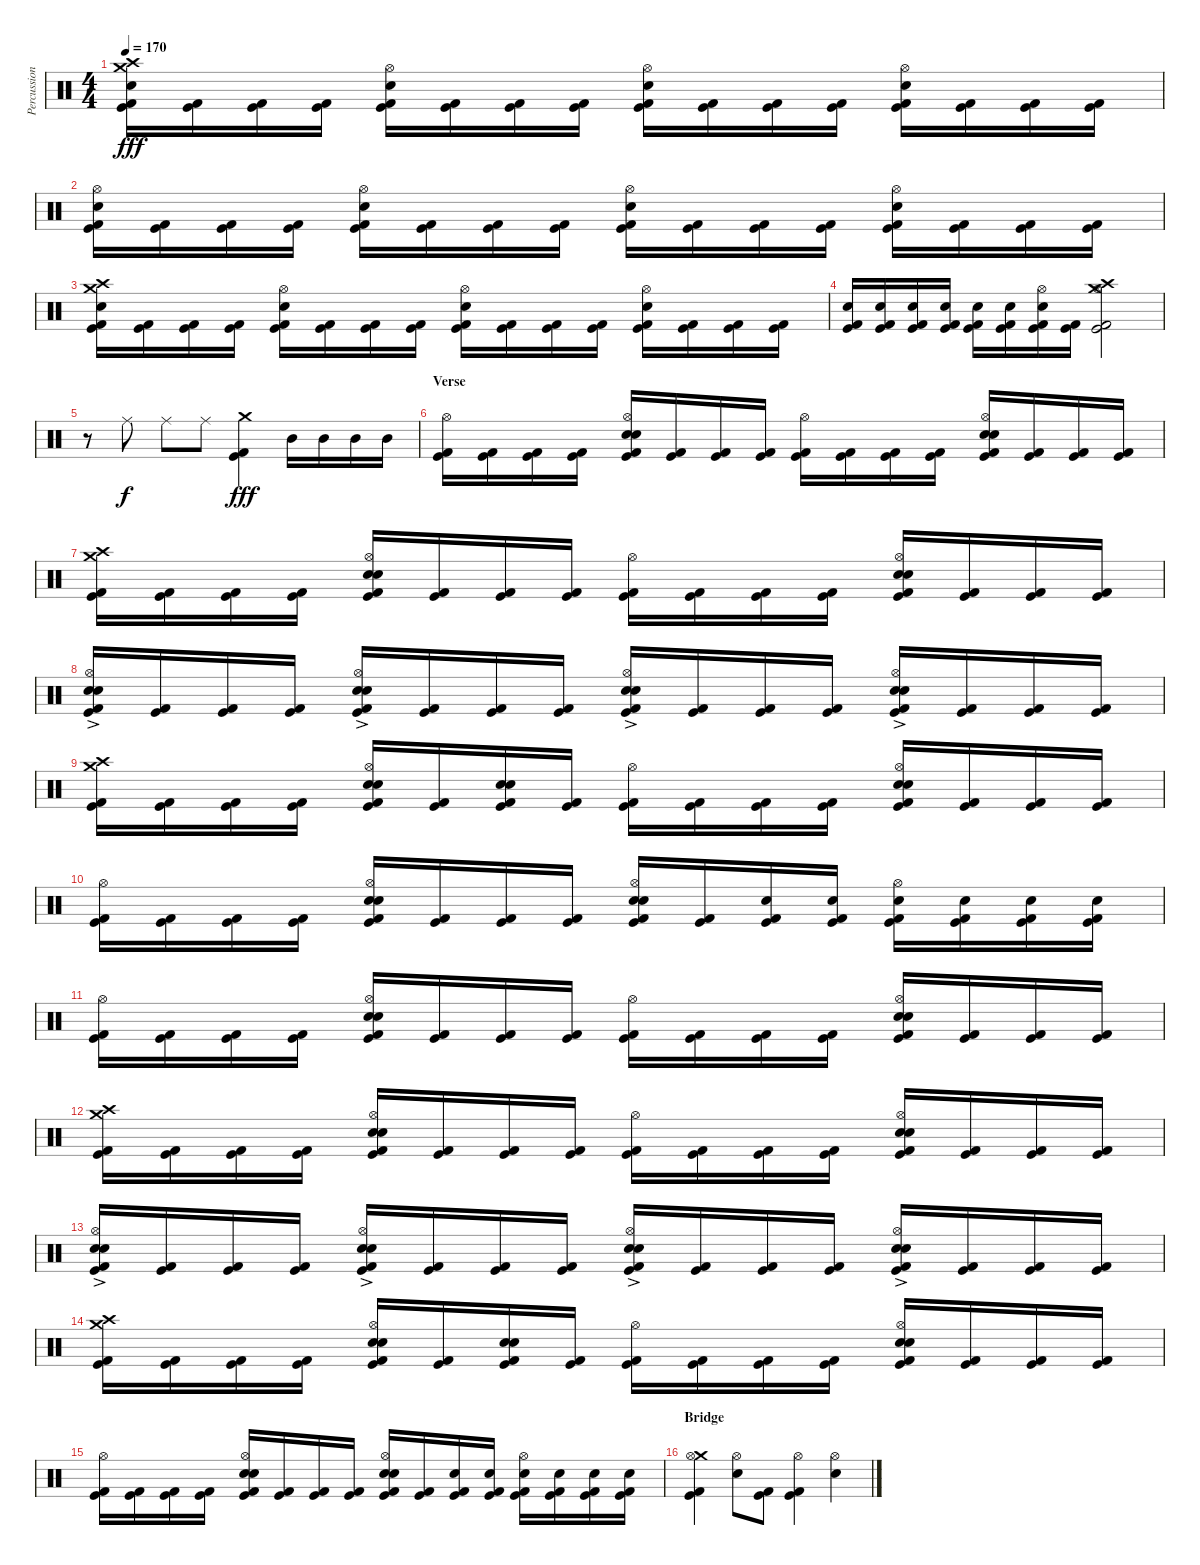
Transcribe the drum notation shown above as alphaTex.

\track ("Percussions" "Percussion") {instrument percussion}
\staff {score}
\articulation defaults
\ts (4 4)
\tempo 170
\clef neutral
\ks c
("Crash high (hit)" "Crash medium (hit)" "Electric Snare (hit)" "Kick (hit)" "Kick (hit) 2").16{dy fff} ("Kick (hit)" "Kick (hit) 2").16 ("Kick (hit)" "Kick (hit) 2").16 ("Kick (hit)" "Kick (hit) 2").16 ("Hi-Hat (open)" "Electric Snare (hit)" "Kick (hit)" "Kick (hit) 2").16 ("Kick (hit)" "Kick (hit) 2").16 ("Kick (hit)" "Kick (hit) 2").16 ("Kick (hit)" "Kick (hit) 2").16 ("Hi-Hat (open)" "Electric Snare (hit)" "Kick (hit)" "Kick (hit) 2").16 ("Kick (hit)" "Kick (hit) 2").16 ("Kick (hit)" "Kick (hit) 2").16 ("Kick (hit)" "Kick (hit) 2").16 ("Hi-Hat (open)" "Electric Snare (hit)" "Kick (hit)" "Kick (hit) 2").16 ("Kick (hit)" "Kick (hit) 2").16 ("Kick (hit)" "Kick (hit) 2").16 ("Kick (hit)" "Kick (hit) 2").16 |
("Hi-Hat (open)" "Electric Snare (hit)" "Kick (hit)" "Kick (hit) 2").16 ("Kick (hit)" "Kick (hit) 2").16 ("Kick (hit)" "Kick (hit) 2").16 ("Kick (hit)" "Kick (hit) 2").16 ("Hi-Hat (open)" "Electric Snare (hit)" "Kick (hit)" "Kick (hit) 2").16 ("Kick (hit)" "Kick (hit) 2").16 ("Kick (hit)" "Kick (hit) 2").16 ("Kick (hit)" "Kick (hit) 2").16 ("Hi-Hat (open)" "Electric Snare (hit)" "Kick (hit)" "Kick (hit) 2").16 ("Kick (hit)" "Kick (hit) 2").16 ("Kick (hit)" "Kick (hit) 2").16 ("Kick (hit)" "Kick (hit) 2").16 ("Hi-Hat (open)" "Electric Snare (hit)" "Kick (hit)" "Kick (hit) 2").16 ("Kick (hit)" "Kick (hit) 2").16 ("Kick (hit)" "Kick (hit) 2").16 ("Kick (hit)" "Kick (hit) 2").16 |
("Crash high (hit)" "Crash medium (hit)" "Electric Snare (hit)" "Kick (hit)" "Kick (hit) 2").16 ("Kick (hit)" "Kick (hit) 2").16 ("Kick (hit)" "Kick (hit) 2").16 ("Kick (hit)" "Kick (hit) 2").16 ("Hi-Hat (open)" "Electric Snare (hit)" "Kick (hit)" "Kick (hit) 2").16 ("Kick (hit)" "Kick (hit) 2").16 ("Kick (hit)" "Kick (hit) 2").16 ("Kick (hit)" "Kick (hit) 2").16 ("Hi-Hat (open)" "Electric Snare (hit)" "Kick (hit)" "Kick (hit) 2").16 ("Kick (hit)" "Kick (hit) 2").16 ("Kick (hit)" "Kick (hit) 2").16 ("Kick (hit)" "Kick (hit) 2").16 ("Hi-Hat (open)" "Electric Snare (hit)" "Kick (hit)" "Kick (hit) 2").16 ("Kick (hit)" "Kick (hit) 2").16 ("Kick (hit)" "Kick (hit) 2").16 ("Kick (hit)" "Kick (hit) 2").16 |
("Electric Snare (hit)" "Kick (hit)" "Kick (hit) 2").16 ("Electric Snare (hit)" "Kick (hit)" "Kick (hit) 2").16 ("Electric Snare (hit)" "Kick (hit)" "Kick (hit) 2").16 ("Electric Snare (hit)" "Kick (hit)" "Kick (hit) 2").16 ("Electric Snare (hit)" "Kick (hit)" "Kick (hit) 2").16 ("Electric Snare (hit)" "Kick (hit)" "Kick (hit) 2").16 ("Hi-Hat (open)" "Electric Snare (hit)" "Kick (hit)" "Kick (hit) 2").16 ("Kick (hit)" "Kick (hit) 2").16 ("Crash high (hit)" "Crash medium (hit)" "Hi-Hat (open)" "Kick (hit)" "Kick (hit) 2").2 |
r.8 "Ride (middle)".8{dy f} "Ride (middle)".8 "Ride (middle)".8 ("Crash medium (hit)" "Kick (hit)" "Kick (hit) 2").4{dy fff} "Mid Tom (hit)".16 "Mid Tom (hit)".16 "Mid Tom (hit)".16 "Mid Tom (hit)".16 |
\section ("" "Verse")
("Hi-Hat (open)" "Kick (hit)" "Kick (hit) 2").16 ("Kick (hit)" "Kick (hit) 2").16 ("Kick (hit)" "Kick (hit) 2").16 ("Kick (hit)" "Kick (hit) 2").16 ("Hi-Hat (open)" "Snare (hit) 2" "Electric Snare (hit)" "Kick (hit)" "Kick (hit) 2").16 ("Kick (hit)" "Kick (hit) 2").16 ("Kick (hit)" "Kick (hit) 2").16 ("Kick (hit)" "Kick (hit) 2").16 ("Hi-Hat (open)" "Kick (hit)" "Kick (hit) 2").16 ("Kick (hit)" "Kick (hit) 2").16 ("Kick (hit)" "Kick (hit) 2").16 ("Kick (hit)" "Kick (hit) 2").16 ("Hi-Hat (open)" "Snare (hit) 2" "Electric Snare (hit)" "Kick (hit)" "Kick (hit) 2").16 ("Kick (hit)" "Kick (hit) 2").16 ("Kick (hit)" "Kick (hit) 2").16 ("Kick (hit)" "Kick (hit) 2").16 |
("Crash high (hit)" "Crash medium (hit)" "Kick (hit)" "Kick (hit) 2").16 ("Kick (hit)" "Kick (hit) 2").16 ("Kick (hit)" "Kick (hit) 2").16 ("Kick (hit)" "Kick (hit) 2").16 ("Hi-Hat (open)" "Snare (hit) 2" "Electric Snare (hit)" "Kick (hit)" "Kick (hit) 2").16 ("Kick (hit)" "Kick (hit) 2").16 ("Kick (hit)" "Kick (hit) 2").16 ("Kick (hit)" "Kick (hit) 2").16 ("Hi-Hat (open)" "Kick (hit)" "Kick (hit) 2").16 ("Kick (hit)" "Kick (hit) 2").16 ("Kick (hit)" "Kick (hit) 2").16 ("Kick (hit)" "Kick (hit) 2").16 ("Hi-Hat (open)" "Snare (hit) 2" "Electric Snare (hit)" "Kick (hit)" "Kick (hit) 2").16 ("Kick (hit)" "Kick (hit) 2").16 ("Kick (hit)" "Kick (hit) 2").16 ("Kick (hit)" "Kick (hit) 2").16 |
("Hi-Hat (open)" "Snare (hit) 2"{ac} "Electric Snare (hit)"{ac} "Kick (hit)" "Kick (hit) 2").16 ("Kick (hit)" "Kick (hit) 2").16 ("Kick (hit)" "Kick (hit) 2").16 ("Kick (hit)" "Kick (hit) 2").16 ("Hi-Hat (open)" "Snare (hit) 2"{ac} "Electric Snare (hit)"{ac} "Kick (hit)" "Kick (hit) 2").16 ("Kick (hit)" "Kick (hit) 2").16 ("Kick (hit)" "Kick (hit) 2").16 ("Kick (hit)" "Kick (hit) 2").16 ("Hi-Hat (open)" "Snare (hit) 2"{ac} "Electric Snare (hit)"{ac} "Kick (hit)" "Kick (hit) 2").16 ("Kick (hit)" "Kick (hit) 2").16 ("Kick (hit)" "Kick (hit) 2").16 ("Kick (hit)" "Kick (hit) 2").16 ("Hi-Hat (open)" "Snare (hit) 2"{ac} "Electric Snare (hit)"{ac} "Kick (hit)" "Kick (hit) 2").16 ("Kick (hit)" "Kick (hit) 2").16 ("Kick (hit)" "Kick (hit) 2").16 ("Kick (hit)" "Kick (hit) 2").16 |
("Crash high (hit)" "Crash medium (hit)" "Kick (hit)" "Kick (hit) 2").16 ("Kick (hit)" "Kick (hit) 2").16 ("Kick (hit)" "Kick (hit) 2").16 ("Kick (hit)" "Kick (hit) 2").16 ("Hi-Hat (open)" "Snare (hit) 2" "Electric Snare (hit)" "Kick (hit)" "Kick (hit) 2").16 ("Kick (hit)" "Kick (hit) 2").16 ("Snare (hit) 2" "Electric Snare (hit)" "Kick (hit)" "Kick (hit) 2").16 ("Kick (hit)" "Kick (hit) 2").16 ("Hi-Hat (open)" "Kick (hit)" "Kick (hit) 2").16 ("Kick (hit)" "Kick (hit) 2").16 ("Kick (hit)" "Kick (hit) 2").16 ("Kick (hit)" "Kick (hit) 2").16 ("Hi-Hat (open)" "Snare (hit) 2" "Electric Snare (hit)" "Kick (hit)" "Kick (hit) 2").16 ("Kick (hit)" "Kick (hit) 2").16 ("Kick (hit)" "Kick (hit) 2").16 ("Kick (hit)" "Kick (hit) 2").16 |
("Hi-Hat (open)" "Kick (hit)" "Kick (hit) 2").16 ("Kick (hit)" "Kick (hit) 2").16 ("Kick (hit)" "Kick (hit) 2").16 ("Kick (hit)" "Kick (hit) 2").16 ("Hi-Hat (open)" "Snare (hit) 2" "Electric Snare (hit)" "Kick (hit)" "Kick (hit) 2").16 ("Kick (hit)" "Kick (hit) 2").16 ("Kick (hit)" "Kick (hit) 2").16 ("Kick (hit)" "Kick (hit) 2").16 ("Hi-Hat (open)" "Snare (hit) 2" "Electric Snare (hit)" "Kick (hit)" "Kick (hit) 2").16 ("Kick (hit)" "Kick (hit) 2").16 ("Electric Snare (hit)" "Kick (hit)" "Kick (hit) 2").16 ("Electric Snare (hit)" "Kick (hit)" "Kick (hit) 2").16 ("Hi-Hat (open)" "Electric Snare (hit)" "Kick (hit)" "Kick (hit) 2").16 ("Electric Snare (hit)" "Kick (hit)" "Kick (hit) 2").16 ("Electric Snare (hit)" "Kick (hit)" "Kick (hit) 2").16 ("Electric Snare (hit)" "Kick (hit)" "Kick (hit) 2").16 |
("Hi-Hat (open)" "Kick (hit)" "Kick (hit) 2").16 ("Kick (hit)" "Kick (hit) 2").16 ("Kick (hit)" "Kick (hit) 2").16 ("Kick (hit)" "Kick (hit) 2").16 ("Hi-Hat (open)" "Snare (hit) 2" "Electric Snare (hit)" "Kick (hit)" "Kick (hit) 2").16 ("Kick (hit)" "Kick (hit) 2").16 ("Kick (hit)" "Kick (hit) 2").16 ("Kick (hit)" "Kick (hit) 2").16 ("Hi-Hat (open)" "Kick (hit)" "Kick (hit) 2").16 ("Kick (hit)" "Kick (hit) 2").16 ("Kick (hit)" "Kick (hit) 2").16 ("Kick (hit)" "Kick (hit) 2").16 ("Hi-Hat (open)" "Snare (hit) 2" "Electric Snare (hit)" "Kick (hit)" "Kick (hit) 2").16 ("Kick (hit)" "Kick (hit) 2").16 ("Kick (hit)" "Kick (hit) 2").16 ("Kick (hit)" "Kick (hit) 2").16 |
("Crash high (hit)" "Crash medium (hit)" "Kick (hit)" "Kick (hit) 2").16 ("Kick (hit)" "Kick (hit) 2").16 ("Kick (hit)" "Kick (hit) 2").16 ("Kick (hit)" "Kick (hit) 2").16 ("Hi-Hat (open)" "Snare (hit) 2" "Electric Snare (hit)" "Kick (hit)" "Kick (hit) 2").16 ("Kick (hit)" "Kick (hit) 2").16 ("Kick (hit)" "Kick (hit) 2").16 ("Kick (hit)" "Kick (hit) 2").16 ("Hi-Hat (open)" "Kick (hit)" "Kick (hit) 2").16 ("Kick (hit)" "Kick (hit) 2").16 ("Kick (hit)" "Kick (hit) 2").16 ("Kick (hit)" "Kick (hit) 2").16 ("Hi-Hat (open)" "Snare (hit) 2" "Electric Snare (hit)" "Kick (hit)" "Kick (hit) 2").16 ("Kick (hit)" "Kick (hit) 2").16 ("Kick (hit)" "Kick (hit) 2").16 ("Kick (hit)" "Kick (hit) 2").16 |
("Hi-Hat (open)" "Snare (hit) 2"{ac} "Electric Snare (hit)"{ac} "Kick (hit)" "Kick (hit) 2").16 ("Kick (hit)" "Kick (hit) 2").16 ("Kick (hit)" "Kick (hit) 2").16 ("Kick (hit)" "Kick (hit) 2").16 ("Hi-Hat (open)" "Snare (hit) 2"{ac} "Electric Snare (hit)"{ac} "Kick (hit)" "Kick (hit) 2").16 ("Kick (hit)" "Kick (hit) 2").16 ("Kick (hit)" "Kick (hit) 2").16 ("Kick (hit)" "Kick (hit) 2").16 ("Hi-Hat (open)" "Snare (hit) 2"{ac} "Electric Snare (hit)"{ac} "Kick (hit)" "Kick (hit) 2").16 ("Kick (hit)" "Kick (hit) 2").16 ("Kick (hit)" "Kick (hit) 2").16 ("Kick (hit)" "Kick (hit) 2").16 ("Hi-Hat (open)" "Snare (hit) 2"{ac} "Electric Snare (hit)"{ac} "Kick (hit)" "Kick (hit) 2").16 ("Kick (hit)" "Kick (hit) 2").16 ("Kick (hit)" "Kick (hit) 2").16 ("Kick (hit)" "Kick (hit) 2").16 |
("Crash high (hit)" "Crash medium (hit)" "Kick (hit)" "Kick (hit) 2").16 ("Kick (hit)" "Kick (hit) 2").16 ("Kick (hit)" "Kick (hit) 2").16 ("Kick (hit)" "Kick (hit) 2").16 ("Hi-Hat (open)" "Snare (hit) 2" "Electric Snare (hit)" "Kick (hit)" "Kick (hit) 2").16 ("Kick (hit)" "Kick (hit) 2").16 ("Snare (hit) 2" "Electric Snare (hit)" "Kick (hit)" "Kick (hit) 2").16 ("Kick (hit)" "Kick (hit) 2").16 ("Hi-Hat (open)" "Kick (hit)" "Kick (hit) 2").16 ("Kick (hit)" "Kick (hit) 2").16 ("Kick (hit)" "Kick (hit) 2").16 ("Kick (hit)" "Kick (hit) 2").16 ("Hi-Hat (open)" "Snare (hit) 2" "Electric Snare (hit)" "Kick (hit)" "Kick (hit) 2").16 ("Kick (hit)" "Kick (hit) 2").16 ("Kick (hit)" "Kick (hit) 2").16 ("Kick (hit)" "Kick (hit) 2").16 |
("Hi-Hat (open)" "Kick (hit)" "Kick (hit) 2").16 ("Kick (hit)" "Kick (hit) 2").16 ("Kick (hit)" "Kick (hit) 2").16 ("Kick (hit)" "Kick (hit) 2").16 ("Hi-Hat (open)" "Snare (hit) 2" "Electric Snare (hit)" "Kick (hit)" "Kick (hit) 2").16 ("Kick (hit)" "Kick (hit) 2").16 ("Kick (hit)" "Kick (hit) 2").16 ("Kick (hit)" "Kick (hit) 2").16 ("Hi-Hat (open)" "Snare (hit) 2" "Electric Snare (hit)" "Kick (hit)" "Kick (hit) 2").16 ("Kick (hit)" "Kick (hit) 2").16 ("Electric Snare (hit)" "Kick (hit)" "Kick (hit) 2").16 ("Electric Snare (hit)" "Kick (hit)" "Kick (hit) 2").16 ("Hi-Hat (open)" "Electric Snare (hit)" "Kick (hit)" "Kick (hit) 2").16 ("Electric Snare (hit)" "Kick (hit)" "Kick (hit) 2").16 ("Electric Snare (hit)" "Kick (hit)" "Kick (hit) 2").16 ("Electric Snare (hit)" "Kick (hit)" "Kick (hit) 2").16 |
\section ("" "Bridge")
("Crash medium (hit)" "Hi-Hat (open)" "Kick (hit)" "Kick (hit) 2").4 ("Hi-Hat (open)" "Electric Snare (hit)").8 ("Kick (hit)" "Kick (hit) 2").8 ("Hi-Hat (open)" "Kick (hit)" "Kick (hit) 2").4 ("Hi-Hat (open)" "Electric Snare (hit)").4
